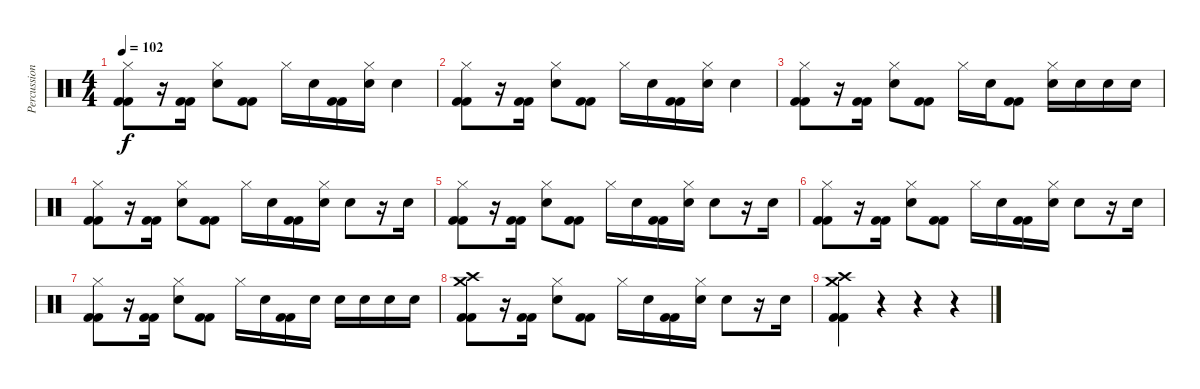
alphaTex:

\track ("Percussions" "Percussion") {instrument percussion}
\staff {score}
\articulation defaults
\ts (4 4)
\tempo 102
\clef neutral
\ks c
("Hi-Hat (closed)" "Kick (hit) 2" "Kick (hit) 2").8{dy f} r.16 ("Kick (hit) 2" "Kick (hit) 2").16 ("Hi-Hat (closed)" "Electric Snare (hit)").8 ("Kick (hit) 2" "Kick (hit) 2").8 "Hi-Hat (closed)".16 "Electric Snare (hit)".16 ("Kick (hit) 2" "Kick (hit) 2").16 ("Hi-Hat (closed)" "Electric Snare (hit)").16 "Electric Snare (hit)".4 |
("Hi-Hat (closed)" "Kick (hit) 2" "Kick (hit) 2").8 r.16 ("Kick (hit) 2" "Kick (hit) 2").16 ("Hi-Hat (closed)" "Electric Snare (hit)").8 ("Kick (hit) 2" "Kick (hit) 2").8 "Hi-Hat (closed)".16 "Electric Snare (hit)".16 ("Kick (hit) 2" "Kick (hit) 2").16 ("Hi-Hat (closed)" "Electric Snare (hit)").16 "Electric Snare (hit)".4 |
("Hi-Hat (closed)" "Kick (hit) 2" "Kick (hit) 2").8 r.16 ("Kick (hit) 2" "Kick (hit) 2").16 ("Hi-Hat (closed)" "Electric Snare (hit)").8 ("Kick (hit) 2" "Kick (hit) 2").8 "Hi-Hat (closed)".16 "Electric Snare (hit)".16 ("Kick (hit) 2" "Kick (hit) 2").8 ("Hi-Hat (closed)" "Electric Snare (hit)").16 "Electric Snare (hit)".16 "Electric Snare (hit)".16 "Electric Snare (hit)".16 |
("Hi-Hat (closed)" "Kick (hit) 2" "Kick (hit) 2").8 r.16 ("Kick (hit) 2" "Kick (hit) 2").16 ("Hi-Hat (closed)" "Electric Snare (hit)").8 ("Kick (hit) 2" "Kick (hit) 2").8 "Hi-Hat (closed)".16 "Electric Snare (hit)".16 ("Kick (hit) 2" "Kick (hit) 2").16 ("Hi-Hat (closed)" "Electric Snare (hit)").16 "Electric Snare (hit)".8 r.16 "Electric Snare (hit)".16 |
("Hi-Hat (closed)" "Kick (hit) 2" "Kick (hit) 2").8 r.16 ("Kick (hit) 2" "Kick (hit) 2").16 ("Hi-Hat (closed)" "Electric Snare (hit)").8 ("Kick (hit) 2" "Kick (hit) 2").8 "Hi-Hat (closed)".16 "Electric Snare (hit)".16 ("Kick (hit) 2" "Kick (hit) 2").16 ("Hi-Hat (closed)" "Electric Snare (hit)").16 "Electric Snare (hit)".8 r.16 "Electric Snare (hit)".16 |
("Hi-Hat (closed)" "Kick (hit) 2" "Kick (hit) 2").8 r.16 ("Kick (hit) 2" "Kick (hit) 2").16 ("Hi-Hat (closed)" "Electric Snare (hit)").8 ("Kick (hit) 2" "Kick (hit) 2").8 "Hi-Hat (closed)".16 "Electric Snare (hit)".16 ("Kick (hit) 2" "Kick (hit) 2").16 ("Hi-Hat (closed)" "Electric Snare (hit)").16 "Electric Snare (hit)".8 r.16 "Electric Snare (hit)".16 |
("Hi-Hat (closed)" "Kick (hit) 2" "Kick (hit) 2").8 r.16 ("Kick (hit) 2" "Kick (hit) 2").16 ("Hi-Hat (closed)" "Electric Snare (hit)").8 ("Kick (hit) 2" "Kick (hit) 2").8 "Hi-Hat (closed)".16 "Electric Snare (hit)".16 ("Kick (hit) 2" "Kick (hit) 2").16 "Electric Snare (hit)".16 "Electric Snare (hit)".16 "Electric Snare (hit)".16 "Electric Snare (hit)".16 "Electric Snare (hit)".16 |
("Crash high (hit)" "Crash medium (hit)" "Kick (hit) 2" "Kick (hit) 2").8 r.16 ("Kick (hit) 2" "Kick (hit) 2").16 ("Hi-Hat (closed)" "Electric Snare (hit)").8 ("Kick (hit) 2" "Kick (hit) 2").8 "Hi-Hat (closed)".16 "Electric Snare (hit)".16 ("Kick (hit) 2" "Kick (hit) 2").16 ("Hi-Hat (closed)" "Electric Snare (hit)").16 "Electric Snare (hit)".8 r.16 "Electric Snare (hit)".16 |
("Crash high (hit)" "Crash medium (hit)" "Kick (hit) 2" "Kick (hit) 2").4 r.4 r.4 r.4
